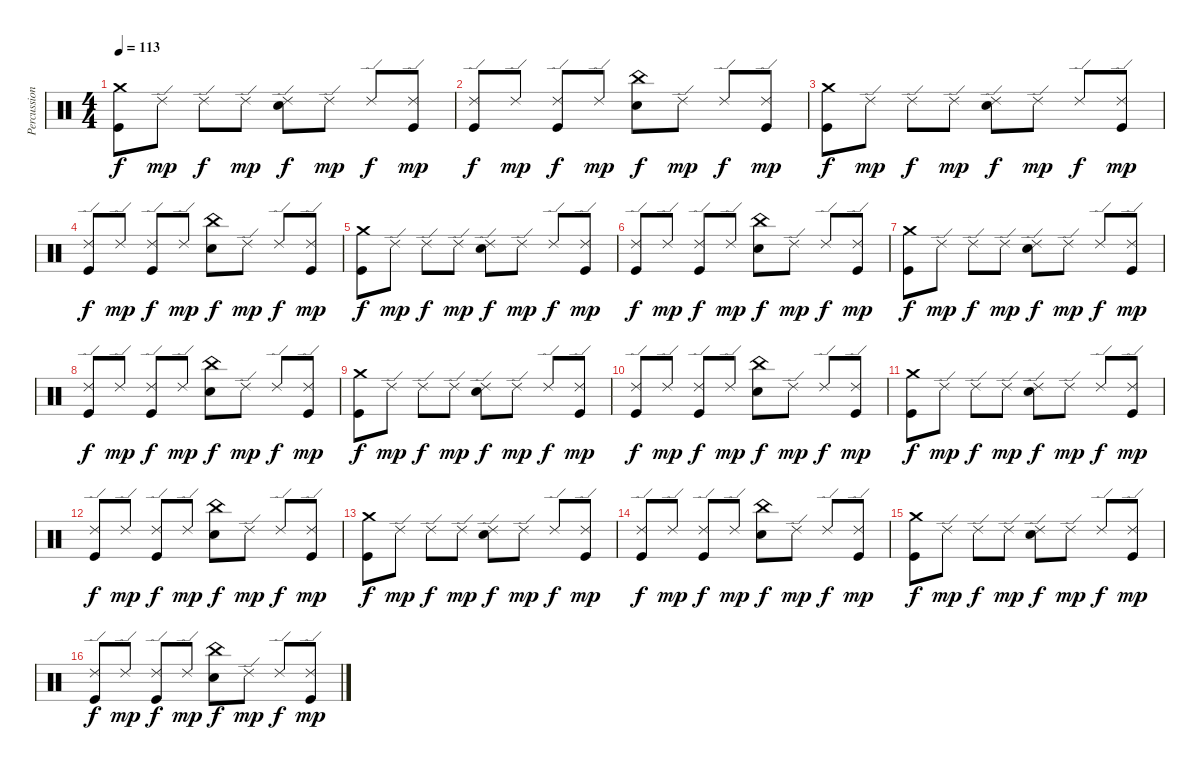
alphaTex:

\track ("Percussioni" "Percussion") {instrument percussion}
\staff {score}
\articulation defaults
\ts (4 4)
\tempo 113
\clef neutral
\ks c
("Crash medium (hit)" "Kick (hit)").8{dy f} "Ride (edge) 2".8{dy mp} "Ride (edge) 2".8{dy f} "Ride (edge) 2".8{dy mp} ("Ride (edge) 2" "Electric Snare (hit)").8{dy f} "Ride (edge) 2".8{dy mp} "Ride (edge) 2".8{dy f} ("Ride (edge) 2" "Kick (hit)").8{dy mp} |
("Ride (edge) 2" "Kick (hit)").8{dy f} "Ride (edge) 2".8{dy mp} ("Ride (edge) 2" "Kick (hit)").8{dy f} "Ride (edge) 2".8{dy mp} ("China (hit)" "Electric Snare (hit)").8{dy f} "Ride (edge) 2".8{dy mp} "Ride (edge) 2".8{dy f} ("Ride (edge) 2" "Kick (hit)").8{dy mp} |
("Crash medium (hit)" "Kick (hit)").8{dy f} "Ride (edge) 2".8{dy mp} "Ride (edge) 2".8{dy f} "Ride (edge) 2".8{dy mp} ("Ride (edge) 2" "Electric Snare (hit)").8{dy f} "Ride (edge) 2".8{dy mp} "Ride (edge) 2".8{dy f} ("Ride (edge) 2" "Kick (hit)").8{dy mp} |
("Ride (edge) 2" "Kick (hit)").8{dy f} "Ride (edge) 2".8{dy mp} ("Ride (edge) 2" "Kick (hit)").8{dy f} "Ride (edge) 2".8{dy mp} ("China (hit)" "Electric Snare (hit)").8{dy f} "Ride (edge) 2".8{dy mp} "Ride (edge) 2".8{dy f} ("Ride (edge) 2" "Kick (hit)").8{dy mp} |
("Crash medium (hit)" "Kick (hit)").8{dy f} "Ride (edge) 2".8{dy mp} "Ride (edge) 2".8{dy f} "Ride (edge) 2".8{dy mp} ("Ride (edge) 2" "Electric Snare (hit)").8{dy f} "Ride (edge) 2".8{dy mp} "Ride (edge) 2".8{dy f} ("Ride (edge) 2" "Kick (hit)").8{dy mp} |
("Ride (edge) 2" "Kick (hit)").8{dy f} "Ride (edge) 2".8{dy mp} ("Ride (edge) 2" "Kick (hit)").8{dy f} "Ride (edge) 2".8{dy mp} ("China (hit)" "Electric Snare (hit)").8{dy f} "Ride (edge) 2".8{dy mp} "Ride (edge) 2".8{dy f} ("Ride (edge) 2" "Kick (hit)").8{dy mp} |
("Crash medium (hit)" "Kick (hit)").8{dy f} "Ride (edge) 2".8{dy mp} "Ride (edge) 2".8{dy f} "Ride (edge) 2".8{dy mp} ("Ride (edge) 2" "Electric Snare (hit)").8{dy f} "Ride (edge) 2".8{dy mp} "Ride (edge) 2".8{dy f} ("Ride (edge) 2" "Kick (hit)").8{dy mp} |
("Ride (edge) 2" "Kick (hit)").8{dy f} "Ride (edge) 2".8{dy mp} ("Ride (edge) 2" "Kick (hit)").8{dy f} "Ride (edge) 2".8{dy mp} ("China (hit)" "Electric Snare (hit)").8{dy f} "Ride (edge) 2".8{dy mp} "Ride (edge) 2".8{dy f} ("Ride (edge) 2" "Kick (hit)").8{dy mp} |
("Crash medium (hit)" "Kick (hit)").8{dy f} "Ride (edge) 2".8{dy mp} "Ride (edge) 2".8{dy f} "Ride (edge) 2".8{dy mp} ("Ride (edge) 2" "Electric Snare (hit)").8{dy f} "Ride (edge) 2".8{dy mp} "Ride (edge) 2".8{dy f} ("Ride (edge) 2" "Kick (hit)").8{dy mp} |
("Ride (edge) 2" "Kick (hit)").8{dy f} "Ride (edge) 2".8{dy mp} ("Ride (edge) 2" "Kick (hit)").8{dy f} "Ride (edge) 2".8{dy mp} ("China (hit)" "Electric Snare (hit)").8{dy f} "Ride (edge) 2".8{dy mp} "Ride (edge) 2".8{dy f} ("Ride (edge) 2" "Kick (hit)").8{dy mp} |
("Crash medium (hit)" "Kick (hit)").8{dy f} "Ride (edge) 2".8{dy mp} "Ride (edge) 2".8{dy f} "Ride (edge) 2".8{dy mp} ("Ride (edge) 2" "Electric Snare (hit)").8{dy f} "Ride (edge) 2".8{dy mp} "Ride (edge) 2".8{dy f} ("Ride (edge) 2" "Kick (hit)").8{dy mp} |
("Ride (edge) 2" "Kick (hit)").8{dy f} "Ride (edge) 2".8{dy mp} ("Ride (edge) 2" "Kick (hit)").8{dy f} "Ride (edge) 2".8{dy mp} ("China (hit)" "Electric Snare (hit)").8{dy f} "Ride (edge) 2".8{dy mp} "Ride (edge) 2".8{dy f} ("Ride (edge) 2" "Kick (hit)").8{dy mp} |
("Crash medium (hit)" "Kick (hit)").8{dy f} "Ride (edge) 2".8{dy mp} "Ride (edge) 2".8{dy f} "Ride (edge) 2".8{dy mp} ("Ride (edge) 2" "Electric Snare (hit)").8{dy f} "Ride (edge) 2".8{dy mp} "Ride (edge) 2".8{dy f} ("Ride (edge) 2" "Kick (hit)").8{dy mp} |
("Ride (edge) 2" "Kick (hit)").8{dy f} "Ride (edge) 2".8{dy mp} ("Ride (edge) 2" "Kick (hit)").8{dy f} "Ride (edge) 2".8{dy mp} ("China (hit)" "Electric Snare (hit)").8{dy f} "Ride (edge) 2".8{dy mp} "Ride (edge) 2".8{dy f} ("Ride (edge) 2" "Kick (hit)").8{dy mp} |
("Crash medium (hit)" "Kick (hit)").8{dy f} "Ride (edge) 2".8{dy mp} "Ride (edge) 2".8{dy f} "Ride (edge) 2".8{dy mp} ("Ride (edge) 2" "Electric Snare (hit)").8{dy f} "Ride (edge) 2".8{dy mp} "Ride (edge) 2".8{dy f} ("Ride (edge) 2" "Kick (hit)").8{dy mp} |
("Ride (edge) 2" "Kick (hit)").8{dy f} "Ride (edge) 2".8{dy mp} ("Ride (edge) 2" "Kick (hit)").8{dy f} "Ride (edge) 2".8{dy mp} ("China (hit)" "Electric Snare (hit)").8{dy f} "Ride (edge) 2".8{dy mp} "Ride (edge) 2".8{dy f} ("Ride (edge) 2" "Kick (hit)").8{dy mp}
